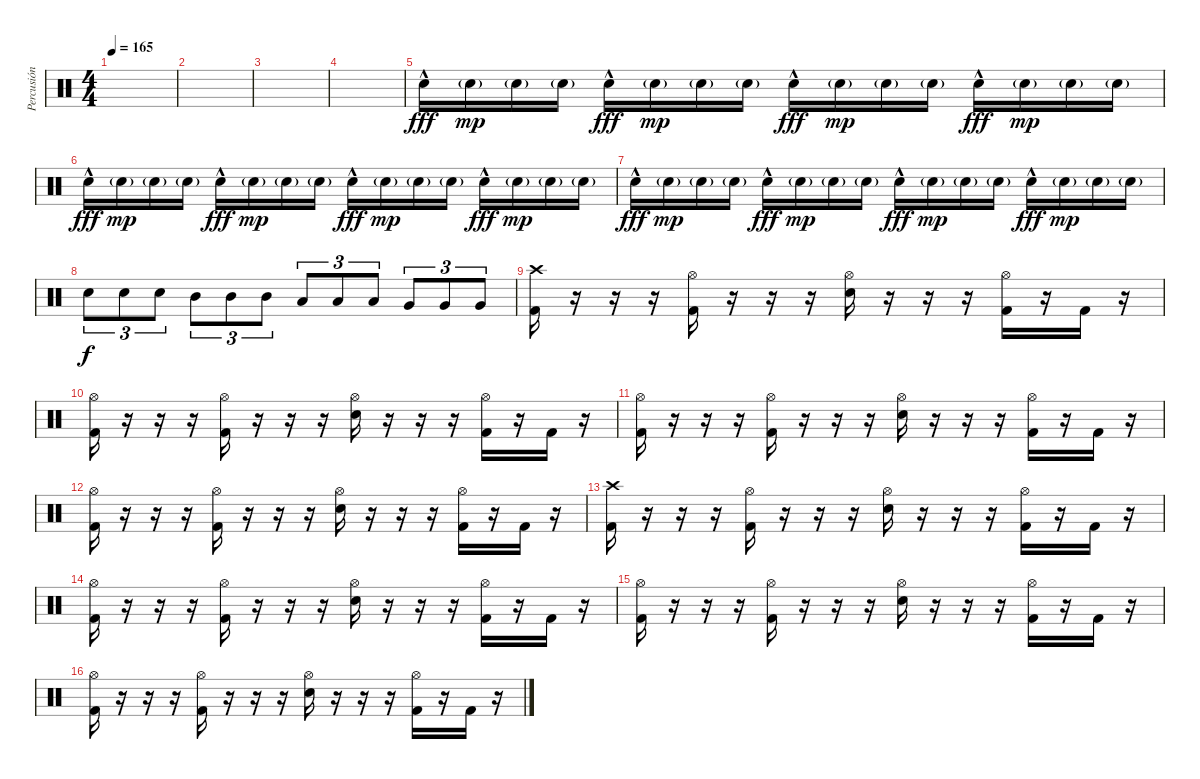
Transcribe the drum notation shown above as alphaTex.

\track ("Percusión" "Percusión") {instrument percussion}
\staff {score}
\articulation defaults
\ts (4 4)
\tempo 165
\clef neutral
\ks c
|
|
|
|
"Electric Snare (hit)"{hac}.16{dy fff} "Electric Snare (hit)"{g}.16{dy mp} "Electric Snare (hit)"{g}.16 "Electric Snare (hit)"{g}.16 "Electric Snare (hit)"{hac}.16{dy fff} "Electric Snare (hit)"{g}.16{dy mp} "Electric Snare (hit)"{g}.16 "Electric Snare (hit)"{g}.16 "Electric Snare (hit)"{hac}.16{dy fff} "Electric Snare (hit)"{g}.16{dy mp} "Electric Snare (hit)"{g}.16 "Electric Snare (hit)"{g}.16 "Electric Snare (hit)"{hac}.16{dy fff} "Electric Snare (hit)"{g}.16{dy mp} "Electric Snare (hit)"{g}.16 "Electric Snare (hit)"{g}.16 |
"Electric Snare (hit)"{hac}.16{dy fff} "Electric Snare (hit)"{g}.16{dy mp} "Electric Snare (hit)"{g}.16 "Electric Snare (hit)"{g}.16 "Electric Snare (hit)"{hac}.16{dy fff} "Electric Snare (hit)"{g}.16{dy mp} "Electric Snare (hit)"{g}.16 "Electric Snare (hit)"{g}.16 "Electric Snare (hit)"{hac}.16{dy fff} "Electric Snare (hit)"{g}.16{dy mp} "Electric Snare (hit)"{g}.16 "Electric Snare (hit)"{g}.16 "Electric Snare (hit)"{hac}.16{dy fff} "Electric Snare (hit)"{g}.16{dy mp} "Electric Snare (hit)"{g}.16 "Electric Snare (hit)"{g}.16 |
"Electric Snare (hit)"{hac}.16{dy fff} "Electric Snare (hit)"{g}.16{dy mp} "Electric Snare (hit)"{g}.16 "Electric Snare (hit)"{g}.16 "Electric Snare (hit)"{hac}.16{dy fff} "Electric Snare (hit)"{g}.16{dy mp} "Electric Snare (hit)"{g}.16 "Electric Snare (hit)"{g}.16 "Electric Snare (hit)"{hac}.16{dy fff} "Electric Snare (hit)"{g}.16{dy mp} "Electric Snare (hit)"{g}.16 "Electric Snare (hit)"{g}.16 "Electric Snare (hit)"{hac}.16{dy fff} "Electric Snare (hit)"{g}.16{dy mp} "Electric Snare (hit)"{g}.16 "Electric Snare (hit)"{g}.16 |
"Electric Snare (hit)".8{tu (3 2) dy f} "Electric Snare (hit)".8{tu (3 2)} "Electric Snare (hit)".8{tu (3 2)} "Mid Tom (hit)".8{tu (3 2)} "Mid Tom (hit)".8{tu (3 2)} "Mid Tom (hit)".8{tu (3 2)} "Low Tom (hit)".8{tu (3 2)} "Low Tom (hit)".8{tu (3 2)} "Low Tom (hit)".8{tu (3 2)} "Very Low Tom (hit)".8{tu (3 2)} "Very Low Tom (hit)".8{tu (3 2)} "Very Low Tom (hit)".8{tu (3 2)} |
("Crash high (hit)" "Kick (hit) 2").16 r.16 r.16 r.16 ("Hi-Hat (open)" "Kick (hit) 2").16 r.16 r.16 r.16 ("Hi-Hat (open)" "Electric Snare (hit)").16 r.16 r.16 r.16 ("Hi-Hat (open)" "Kick (hit) 2").16 r.16 "Kick (hit) 2".16 r.16 |
("Hi-Hat (open)" "Kick (hit) 2").16 r.16 r.16 r.16 ("Hi-Hat (open)" "Kick (hit) 2").16 r.16 r.16 r.16 ("Hi-Hat (open)" "Electric Snare (hit)").16 r.16 r.16 r.16 ("Hi-Hat (open)" "Kick (hit) 2").16 r.16 "Kick (hit) 2".16 r.16 |
("Hi-Hat (open)" "Kick (hit) 2").16 r.16 r.16 r.16 ("Hi-Hat (open)" "Kick (hit) 2").16 r.16 r.16 r.16 ("Hi-Hat (open)" "Electric Snare (hit)").16 r.16 r.16 r.16 ("Hi-Hat (open)" "Kick (hit) 2").16 r.16 "Kick (hit) 2".16 r.16 |
("Hi-Hat (open)" "Kick (hit) 2").16 r.16 r.16 r.16 ("Hi-Hat (open)" "Kick (hit) 2").16 r.16 r.16 r.16 ("Hi-Hat (open)" "Electric Snare (hit)").16 r.16 r.16 r.16 ("Hi-Hat (open)" "Kick (hit) 2").16 r.16 "Kick (hit) 2".16 r.16 |
("Crash high (hit)" "Kick (hit) 2").16 r.16 r.16 r.16 ("Hi-Hat (open)" "Kick (hit) 2").16 r.16 r.16 r.16 ("Hi-Hat (open)" "Electric Snare (hit)").16 r.16 r.16 r.16 ("Hi-Hat (open)" "Kick (hit) 2").16 r.16 "Kick (hit) 2".16 r.16 |
("Hi-Hat (open)" "Kick (hit) 2").16 r.16 r.16 r.16 ("Hi-Hat (open)" "Kick (hit) 2").16 r.16 r.16 r.16 ("Hi-Hat (open)" "Electric Snare (hit)").16 r.16 r.16 r.16 ("Hi-Hat (open)" "Kick (hit) 2").16 r.16 "Kick (hit) 2".16 r.16 |
("Hi-Hat (open)" "Kick (hit) 2").16 r.16 r.16 r.16 ("Hi-Hat (open)" "Kick (hit) 2").16 r.16 r.16 r.16 ("Hi-Hat (open)" "Electric Snare (hit)").16 r.16 r.16 r.16 ("Hi-Hat (open)" "Kick (hit) 2").16 r.16 "Kick (hit) 2".16 r.16 |
("Hi-Hat (open)" "Kick (hit) 2").16 r.16 r.16 r.16 ("Hi-Hat (open)" "Kick (hit) 2").16 r.16 r.16 r.16 ("Hi-Hat (open)" "Electric Snare (hit)").16 r.16 r.16 r.16 ("Hi-Hat (open)" "Kick (hit) 2").16 r.16 "Kick (hit) 2".16 r.16
